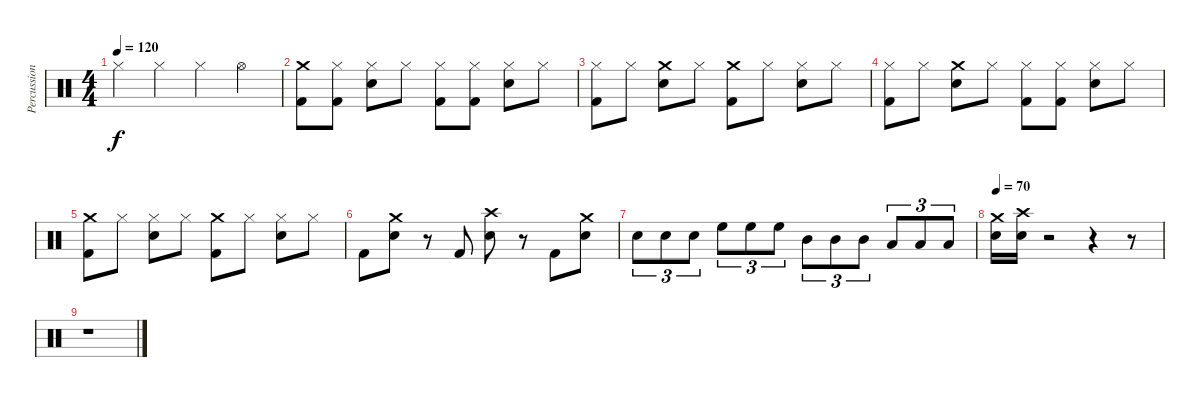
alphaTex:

\track ("Percussions" "Percussion") {instrument percussion}
\staff {score}
\articulation defaults
\ts (4 4)
\tempo 120
\clef neutral
\ks c "Hi-Hat (closed)".4{dy f} "Hi-Hat (closed)".4 "Hi-Hat (closed)".4 "Hi-Hat (open)".4
|
("Crash medium (hit)" "Kick (hit) 2").8 ("Hi-Hat (closed)" "Kick (hit) 2").8 ("Hi-Hat (closed)" "Electric Snare (hit)").8 "Hi-Hat (closed)".8 ("Hi-Hat (closed)" "Kick (hit) 2").8 ("Hi-Hat (closed)" "Kick (hit) 2").8 ("Hi-Hat (closed)" "Electric Snare (hit)").8 "Hi-Hat (closed)".8 |
("Hi-Hat (closed)" "Kick (hit) 2").8 "Hi-Hat (closed)".8 ("Crash medium (hit)" "Electric Snare (hit)").8 "Hi-Hat (closed)".8 ("Crash medium (hit)" "Kick (hit) 2").8 "Hi-Hat (closed)".8 ("Hi-Hat (closed)" "Electric Snare (hit)").8 "Hi-Hat (closed)".8 |
("Hi-Hat (closed)" "Kick (hit) 2").8 "Hi-Hat (closed)".8 ("Crash medium (hit)" "Electric Snare (hit)").8 "Hi-Hat (closed)".8 ("Hi-Hat (closed)" "Kick (hit) 2").8 ("Hi-Hat (closed)" "Kick (hit) 2").8 ("Hi-Hat (closed)" "Electric Snare (hit)").8 "Hi-Hat (closed)".8 |
("Crash medium (hit)" "Kick (hit) 2").8 "Hi-Hat (closed)".8 ("Hi-Hat (closed)" "Electric Snare (hit)").8 "Hi-Hat (closed)".8 ("Crash medium (hit)" "Kick (hit) 2").8 "Hi-Hat (closed)".8 ("Hi-Hat (closed)" "Electric Snare (hit)").8 "Hi-Hat (closed)".8 |
"Kick (hit) 2".8 ("Crash medium (hit)" "Electric Snare (hit)").8 r.8 "Kick (hit) 2".8 ("Crash high (hit)" "Electric Snare (hit)").8 r.8 "Kick (hit) 2".8 ("Crash medium (hit)" "Electric Snare (hit)").8 |
"Electric Snare (hit)".8{tu (3 2)} "Electric Snare (hit)".8{tu (3 2)} "Electric Snare (hit)".8{tu (3 2)} "High Floor Tom (hit)".8{tu (3 2)} "High Floor Tom (hit)".8{tu (3 2)} "High Floor Tom (hit)".8{tu (3 2)} "Mid Tom (hit)".8{tu (3 2)} "Mid Tom (hit)".8{tu (3 2)} "Mid Tom (hit)".8{tu (3 2)} "Low Tom (hit)".8{tu (3 2)} "Low Tom (hit)".8{tu (3 2)} "Low Tom (hit)".8{tu (3 2)} |
\tempo 70
("Crash medium (hit)" "Electric Snare (hit)").16{volume 16} ("Crash high (hit)" "Electric Snare (hit)").16 r.2 r.4 r.8 |
r.1
